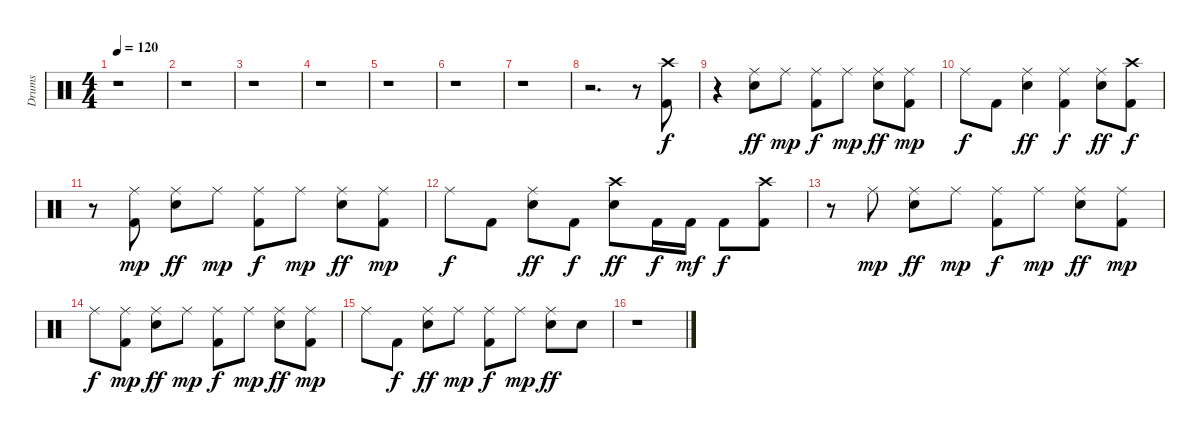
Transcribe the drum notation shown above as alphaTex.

\track ("Drums" "Drums") {instrument percussion}
\staff {score}
\articulation defaults
\ts (4 4)
\tempo 120
\clef neutral
\ks c
r.1{dy f} |
r.1 |
r.1 |
r.1 |
r.1 |
r.1 |
r.1 |
r.2{d} r.8 ("Crash high (hit)" "Kick (hit) 2").8{volume 16} |
r.4 ("Snare (hit) 2" "Ride (middle)").8{dy ff} "Ride (middle)".8{dy mp} ("Ride (middle)" "Kick (hit) 2").8{dy f} "Ride (middle)".8{dy mp} ("Snare (hit) 2" "Ride (middle)").8{dy ff} ("Ride (middle)" "Kick (hit) 2").8{dy mp} |
"Ride (middle)".8{dy f} "Kick (hit) 2".8 ("Snare (hit) 2" "Ride (middle)").4{dy ff} ("Ride (middle)" "Kick (hit) 2").4{dy f} ("Ride (middle)" "Snare (hit) 2").8{dy ff} ("Crash high (hit)" "Kick (hit) 2").8{dy f} |
r.8 ("Ride (middle)" "Kick (hit) 2").8{dy mp} ("Snare (hit) 2" "Ride (middle)").8{dy ff} "Ride (middle)".8{dy mp} ("Ride (middle)" "Kick (hit) 2").8{dy f} "Ride (middle)".8{dy mp} ("Snare (hit) 2" "Ride (middle)").8{dy ff} ("Ride (middle)" "Kick (hit) 2").8{dy mp} |
"Ride (middle)".8{dy f} "Kick (hit) 2".8 ("Snare (hit) 2" "Ride (middle)").8{dy ff} "Kick (hit) 2".8{dy f} ("Crash high (hit)" "Snare (hit) 2").8{dy ff} "Kick (hit) 2".16{dy f} "Kick (hit) 2".16{dy mf} "Kick (hit) 2".8{dy f} ("Crash high (hit)" "Kick (hit) 2").8 |
r.8 "Ride (middle)".8{dy mp} ("Snare (hit) 2" "Ride (middle)").8{dy ff} "Ride (middle)".8{dy mp} ("Ride (middle)" "Kick (hit) 2").8{dy f} "Ride (middle)".8{dy mp} ("Snare (hit) 2" "Ride (middle)").8{dy ff} ("Ride (middle)" "Kick (hit) 2").8{dy mp} |
"Ride (middle)".8{dy f} ("Ride (middle)" "Kick (hit) 2").8{dy mp} ("Snare (hit) 2" "Ride (middle)").8{dy ff} "Ride (middle)".8{dy mp} ("Ride (middle)" "Kick (hit) 2").8{dy f} "Ride (middle)".8{dy mp} ("Snare (hit) 2" "Ride (middle)").8{dy ff} ("Ride (middle)" "Kick (hit) 2").8{dy mp} |
"Ride (middle)".8 "Kick (hit) 2".8{dy f} ("Snare (hit) 2" "Ride (middle)").8{dy ff} "Ride (middle)".8{dy mp} ("Ride (middle)" "Kick (hit) 2").8{dy f} "Ride (middle)".8{dy mp} ("Snare (hit) 2" "Ride (middle)").8{dy ff} "Snare (hit) 2".8 |
r.1
